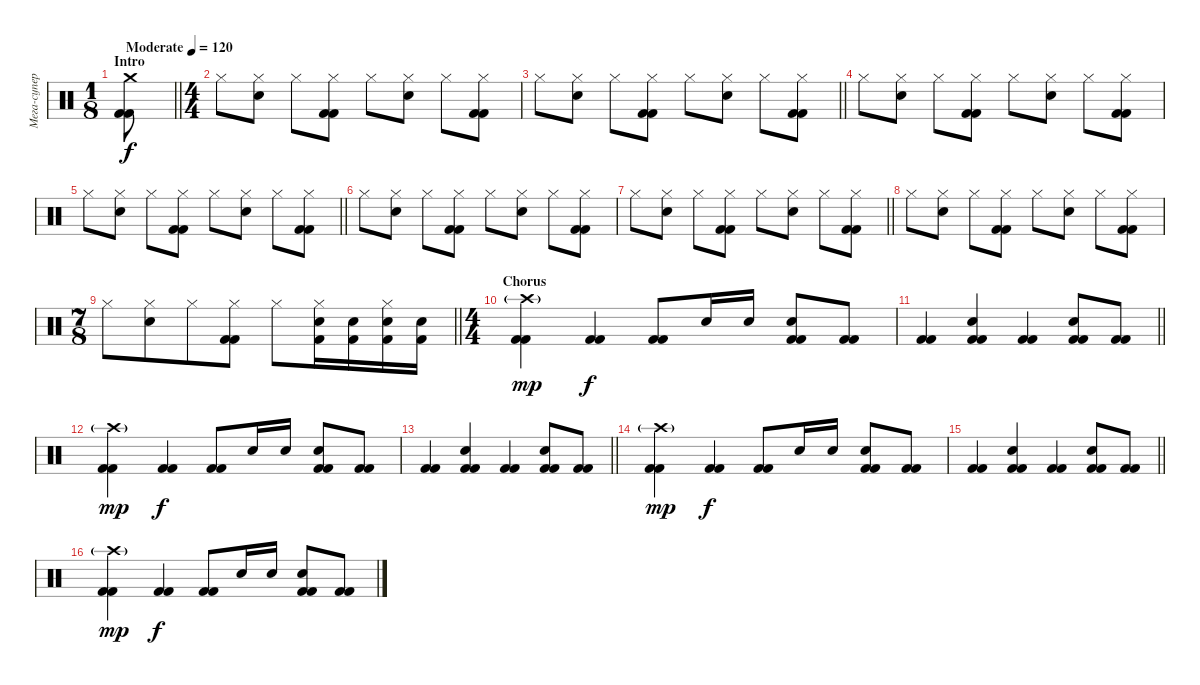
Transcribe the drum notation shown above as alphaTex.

\track ("Мега-супер-охеренный драммер" "Мега-супер") {instrument percussion}
\staff {score}
\articulation defaults
\ts (1 8)
\section ("" "Intro")
\tempo (120 "Moderate")
\clef neutral
\barLineRight lightlight
\ks c
("Crash medium (hit)" "Kick (hit) 2" "Kick (hit) 2").8{dy f} |
\ts (4 4)
"Hi-Hat (closed)".8 ("Hi-Hat (closed)" "Electric Snare (hit)").8 "Hi-Hat (closed)".8 ("Hi-Hat (closed)" "Kick (hit) 2" "Kick (hit) 2").8 "Hi-Hat (closed)".8 ("Hi-Hat (closed)" "Electric Snare (hit)").8 "Hi-Hat (closed)".8 ("Hi-Hat (closed)" "Kick (hit) 2" "Kick (hit) 2").8 |
\barLineRight lightlight "Hi-Hat (closed)".8
("Hi-Hat (closed)" "Electric Snare (hit)").8 "Hi-Hat (closed)".8 ("Hi-Hat (closed)" "Kick (hit) 2" "Kick (hit) 2").8 "Hi-Hat (closed)".8 ("Hi-Hat (closed)" "Electric Snare (hit)").8 "Hi-Hat (closed)".8 ("Hi-Hat (closed)" "Kick (hit) 2" "Kick (hit) 2").8 |
"Hi-Hat (closed)".8 ("Hi-Hat (closed)" "Electric Snare (hit)").8 "Hi-Hat (closed)".8 ("Hi-Hat (closed)" "Kick (hit) 2" "Kick (hit) 2").8 "Hi-Hat (closed)".8 ("Hi-Hat (closed)" "Electric Snare (hit)").8 "Hi-Hat (closed)".8 ("Hi-Hat (closed)" "Kick (hit) 2" "Kick (hit) 2").8 |
\barLineRight lightlight "Hi-Hat (closed)".8
("Hi-Hat (closed)" "Electric Snare (hit)").8 "Hi-Hat (closed)".8 ("Hi-Hat (closed)" "Kick (hit) 2" "Kick (hit) 2").8 "Hi-Hat (closed)".8 ("Hi-Hat (closed)" "Electric Snare (hit)").8 "Hi-Hat (closed)".8 ("Hi-Hat (closed)" "Kick (hit) 2" "Kick (hit) 2").8 |
"Hi-Hat (closed)".8 ("Hi-Hat (closed)" "Electric Snare (hit)").8 "Hi-Hat (closed)".8 ("Hi-Hat (closed)" "Kick (hit) 2" "Kick (hit) 2").8 "Hi-Hat (closed)".8 ("Hi-Hat (closed)" "Electric Snare (hit)").8 "Hi-Hat (closed)".8 ("Hi-Hat (closed)" "Kick (hit) 2" "Kick (hit) 2").8 |
\barLineRight lightlight "Hi-Hat (closed)".8
("Hi-Hat (closed)" "Electric Snare (hit)").8 "Hi-Hat (closed)".8 ("Hi-Hat (closed)" "Kick (hit) 2" "Kick (hit) 2").8 "Hi-Hat (closed)".8 ("Hi-Hat (closed)" "Electric Snare (hit)").8 "Hi-Hat (closed)".8 ("Hi-Hat (closed)" "Kick (hit) 2" "Kick (hit) 2").8 |
"Hi-Hat (closed)".8 ("Hi-Hat (closed)" "Electric Snare (hit)").8 "Hi-Hat (closed)".8 ("Hi-Hat (closed)" "Kick (hit) 2" "Kick (hit) 2").8 "Hi-Hat (closed)".8 ("Hi-Hat (closed)" "Electric Snare (hit)").8 "Hi-Hat (closed)".8 ("Hi-Hat (closed)" "Kick (hit) 2" "Kick (hit) 2").8 |
\ts (7 8)
\barLineRight lightlight "Hi-Hat (closed)".8
("Hi-Hat (closed)" "Electric Snare (hit)").8 "Hi-Hat (closed)".8 ("Hi-Hat (closed)" "Kick (hit) 2" "Kick (hit) 2").8 "Hi-Hat (closed)".8 ("Hi-Hat (closed)" "Electric Snare (hit)" "Kick (hit) 2").16 ("Electric Snare (hit)" "Kick (hit) 2").16 ("Hi-Hat (closed)" "Electric Snare (hit)" "Kick (hit) 2").16 ("Electric Snare (hit)" "Kick (hit) 2").16 |
\ts (4 4)
\section ("" "Chorus")
("Crash high (hit)"{g} "Kick (hit) 2" "Kick (hit) 2").4{dy mp} ("Kick (hit) 2" "Kick (hit) 2").4{dy f} ("Kick (hit) 2" "Kick (hit) 2").8 "Electric Snare (hit)".16 "Electric Snare (hit)".16 ("Electric Snare (hit)" "Kick (hit) 2" "Kick (hit) 2").8 ("Kick (hit) 2" "Kick (hit) 2").8 |
\barLineRight lightlight
("Kick (hit) 2" "Kick (hit) 2").4 ("Electric Snare (hit)" "Kick (hit) 2" "Kick (hit) 2").4 ("Kick (hit) 2" "Kick (hit) 2").4 ("Electric Snare (hit)" "Kick (hit) 2" "Kick (hit) 2").8 ("Kick (hit) 2" "Kick (hit) 2").8 |
("Crash high (hit)"{g} "Kick (hit) 2" "Kick (hit) 2").4{dy mp} ("Kick (hit) 2" "Kick (hit) 2").4{dy f} ("Kick (hit) 2" "Kick (hit) 2").8 "Electric Snare (hit)".16 "Electric Snare (hit)".16 ("Electric Snare (hit)" "Kick (hit) 2" "Kick (hit) 2").8 ("Kick (hit) 2" "Kick (hit) 2").8 |
\barLineRight lightlight
("Kick (hit) 2" "Kick (hit) 2").4 ("Electric Snare (hit)" "Kick (hit) 2" "Kick (hit) 2").4 ("Kick (hit) 2" "Kick (hit) 2").4 ("Electric Snare (hit)" "Kick (hit) 2" "Kick (hit) 2").8 ("Kick (hit) 2" "Kick (hit) 2").8 |
("Crash high (hit)"{g} "Kick (hit) 2" "Kick (hit) 2").4{dy mp} ("Kick (hit) 2" "Kick (hit) 2").4{dy f} ("Kick (hit) 2" "Kick (hit) 2").8 "Electric Snare (hit)".16 "Electric Snare (hit)".16 ("Electric Snare (hit)" "Kick (hit) 2" "Kick (hit) 2").8 ("Kick (hit) 2" "Kick (hit) 2").8 |
\barLineRight lightlight
("Kick (hit) 2" "Kick (hit) 2").4 ("Electric Snare (hit)" "Kick (hit) 2" "Kick (hit) 2").4 ("Kick (hit) 2" "Kick (hit) 2").4 ("Electric Snare (hit)" "Kick (hit) 2" "Kick (hit) 2").8 ("Kick (hit) 2" "Kick (hit) 2").8 |
("Crash high (hit)"{g} "Kick (hit) 2" "Kick (hit) 2").4{dy mp} ("Kick (hit) 2" "Kick (hit) 2").4{dy f} ("Kick (hit) 2" "Kick (hit) 2").8 "Electric Snare (hit)".16 "Electric Snare (hit)".16 ("Electric Snare (hit)" "Kick (hit) 2" "Kick (hit) 2").8 ("Kick (hit) 2" "Kick (hit) 2").8
